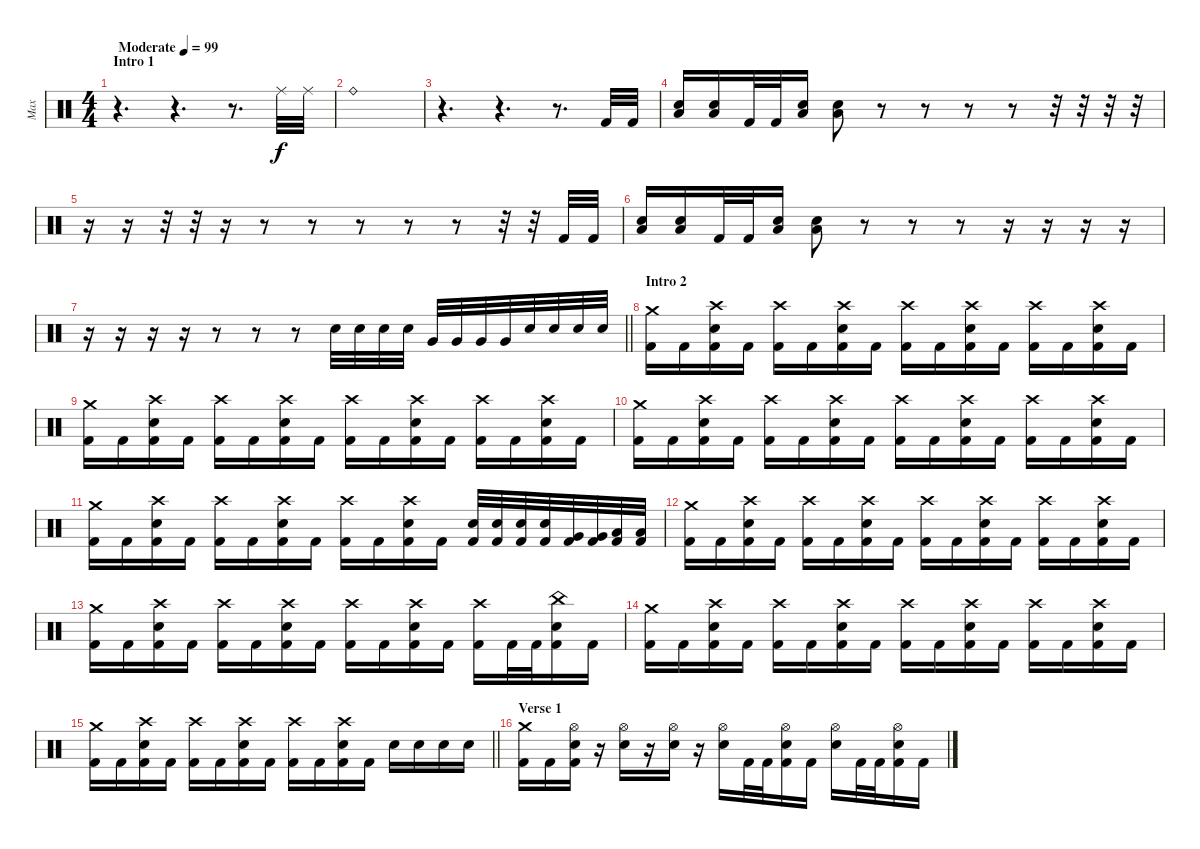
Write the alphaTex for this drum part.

\track ("Max" "Max") {instrument percussion}
\staff {score}
\articulation defaults
\ts (4 4)
\section ("" "Intro 1")
\tempo (99 "Moderate")
\clef neutral
\ks c
r.4{d dy f} r.4{d} r.8{d} "Ride (middle)".32 "Ride (middle)".32 |
"Ride (bell)".1 |
r.4{d} r.4{d} r.8{d} "Kick (hit) 2".32 "Kick (hit) 2".32 |
("Low Floor Tom (hit)" "Electric Snare (hit)").16 ("Low Floor Tom (hit)" "Electric Snare (hit)").16 "Kick (hit) 2".32 "Kick (hit) 2".32 ("Low Floor Tom (hit)" "Electric Snare (hit)").16 ("Low Floor Tom (hit)" "Electric Snare (hit)").8 r.8 r.8 r.8 r.8 r.32 r.32 r.32 r.32 |
r.16 r.16 r.32 r.32 r.16 r.8 r.8 r.8 r.8 r.8 r.32 r.32 "Kick (hit) 2".32 "Kick (hit) 2".32 |
("Low Floor Tom (hit)" "Electric Snare (hit)").16 ("Low Floor Tom (hit)" "Electric Snare (hit)").16 "Kick (hit) 2".32 "Kick (hit) 2".32 ("Low Floor Tom (hit)" "Electric Snare (hit)").16 ("Low Floor Tom (hit)" "Electric Snare (hit)").8 r.8 r.8 r.8 r.16 r.16 r.16 r.16 |
\barLineRight lightlight
r.16 r.16 r.16 r.16 r.8 r.8 r.8 "Electric Snare (hit)".32 "Electric Snare (hit)".32 "Electric Snare (hit)".32 "Electric Snare (hit)".32 "Very Low Tom (hit)".32 "Very Low Tom (hit)".32 "Very Low Tom (hit)".32 "Very Low Tom (hit)".32 "Electric Snare (hit)".32 "Electric Snare (hit)".32 "Electric Snare (hit)".32 "Electric Snare (hit)".32 |
\section ("" "Intro 2")
("Crash medium (hit)" "Kick (hit) 2").16 "Kick (hit) 2".16 ("Crash high (hit)" "Electric Snare (hit)" "Kick (hit) 2").16 "Kick (hit) 2".16 ("Crash high (hit)" "Kick (hit) 2").16 "Kick (hit) 2".16 ("Crash high (hit)" "Electric Snare (hit)" "Kick (hit) 2").16 "Kick (hit) 2".16 ("Crash high (hit)" "Kick (hit) 2").16 "Kick (hit) 2".16 ("Crash high (hit)" "Electric Snare (hit)" "Kick (hit) 2").16 "Kick (hit) 2".16 ("Crash high (hit)" "Kick (hit) 2").16 "Kick (hit) 2".16 ("Crash high (hit)" "Electric Snare (hit)" "Kick (hit) 2").16 "Kick (hit) 2".16 |
("Crash medium (hit)" "Kick (hit) 2").16 "Kick (hit) 2".16 ("Crash high (hit)" "Electric Snare (hit)" "Kick (hit) 2").16 "Kick (hit) 2".16 ("Crash high (hit)" "Kick (hit) 2").16 "Kick (hit) 2".16 ("Crash high (hit)" "Electric Snare (hit)" "Kick (hit) 2").16 "Kick (hit) 2".16 ("Crash high (hit)" "Kick (hit) 2").16 "Kick (hit) 2".16 ("Crash high (hit)" "Electric Snare (hit)" "Kick (hit) 2").16 "Kick (hit) 2".16 ("Crash high (hit)" "Kick (hit) 2").16 "Kick (hit) 2".16 ("Crash high (hit)" "Electric Snare (hit)" "Kick (hit) 2").16 "Kick (hit) 2".16 |
("Crash medium (hit)" "Kick (hit) 2").16 "Kick (hit) 2".16 ("Crash high (hit)" "Electric Snare (hit)" "Kick (hit) 2").16 "Kick (hit) 2".16 ("Crash high (hit)" "Kick (hit) 2").16 "Kick (hit) 2".16 ("Crash high (hit)" "Electric Snare (hit)" "Kick (hit) 2").16 "Kick (hit) 2".16 ("Crash high (hit)" "Kick (hit) 2").16 "Kick (hit) 2".16 ("Crash high (hit)" "Electric Snare (hit)" "Kick (hit) 2").16 "Kick (hit) 2".16 ("Crash high (hit)" "Kick (hit) 2").16 "Kick (hit) 2".16 ("Crash high (hit)" "Electric Snare (hit)" "Kick (hit) 2").16 "Kick (hit) 2".16 |
("Crash medium (hit)" "Kick (hit) 2").16 "Kick (hit) 2".16 ("Crash high (hit)" "Electric Snare (hit)" "Kick (hit) 2").16 "Kick (hit) 2".16 ("Crash high (hit)" "Kick (hit) 2").16 "Kick (hit) 2".16 ("Crash high (hit)" "Electric Snare (hit)" "Kick (hit) 2").16 "Kick (hit) 2".16 ("Crash high (hit)" "Kick (hit) 2").16 "Kick (hit) 2".16 ("Crash high (hit)" "Electric Snare (hit)" "Kick (hit) 2").16 "Kick (hit) 2".16 ("Electric Snare (hit)" "Kick (hit) 2").32 ("Electric Snare (hit)" "Kick (hit) 2").32 ("Electric Snare (hit)" "Kick (hit) 2").32 ("Electric Snare (hit)" "Kick (hit) 2").32 ("Very Low Tom (hit)" "Kick (hit) 2").32 ("Very Low Tom (hit)" "Kick (hit) 2").32 ("Low Floor Tom (hit)" "Kick (hit) 2").32 ("Low Floor Tom (hit)" "Kick (hit) 2").32 |
("Crash medium (hit)" "Kick (hit) 2").16 "Kick (hit) 2".16 ("Crash high (hit)" "Electric Snare (hit)" "Kick (hit) 2").16 "Kick (hit) 2".16 ("Crash high (hit)" "Kick (hit) 2").16 "Kick (hit) 2".16 ("Crash high (hit)" "Electric Snare (hit)" "Kick (hit) 2").16 "Kick (hit) 2".16 ("Crash high (hit)" "Kick (hit) 2").16 "Kick (hit) 2".16 ("Crash high (hit)" "Electric Snare (hit)" "Kick (hit) 2").16 "Kick (hit) 2".16 ("Crash high (hit)" "Kick (hit) 2").16 "Kick (hit) 2".16 ("Crash high (hit)" "Electric Snare (hit)" "Kick (hit) 2").16 "Kick (hit) 2".16 |
("Crash medium (hit)" "Kick (hit) 2").16 "Kick (hit) 2".16 ("Crash high (hit)" "Electric Snare (hit)" "Kick (hit) 2").16 "Kick (hit) 2".16 ("Crash high (hit)" "Kick (hit) 2").16 "Kick (hit) 2".16 ("Crash high (hit)" "Electric Snare (hit)" "Kick (hit) 2").16 "Kick (hit) 2".16 ("Crash high (hit)" "Kick (hit) 2").16 "Kick (hit) 2".16 ("Crash high (hit)" "Electric Snare (hit)" "Kick (hit) 2").16 "Kick (hit) 2".16 ("Crash high (hit)" "Kick (hit) 2").16 "Kick (hit) 2".32 "Kick (hit) 2".32 ("China (hit)" "Electric Snare (hit)" "Kick (hit) 2").16 "Kick (hit) 2".16 |
("Crash medium (hit)" "Kick (hit) 2").16 "Kick (hit) 2".16 ("Crash high (hit)" "Electric Snare (hit)" "Kick (hit) 2").16 "Kick (hit) 2".16 ("Crash high (hit)" "Kick (hit) 2").16 "Kick (hit) 2".16 ("Crash high (hit)" "Electric Snare (hit)" "Kick (hit) 2").16 "Kick (hit) 2".16 ("Crash high (hit)" "Kick (hit) 2").16 "Kick (hit) 2".16 ("Crash high (hit)" "Electric Snare (hit)" "Kick (hit) 2").16 "Kick (hit) 2".16 ("Crash high (hit)" "Kick (hit) 2").16 "Kick (hit) 2".16 ("Crash high (hit)" "Electric Snare (hit)" "Kick (hit) 2").16 "Kick (hit) 2".16 |
\barLineRight lightlight
("Crash medium (hit)" "Kick (hit) 2").16 "Kick (hit) 2".16 ("Crash high (hit)" "Electric Snare (hit)" "Kick (hit) 2").16 "Kick (hit) 2".16 ("Crash high (hit)" "Kick (hit) 2").16 "Kick (hit) 2".16 ("Crash high (hit)" "Electric Snare (hit)" "Kick (hit) 2").16 "Kick (hit) 2".16 ("Crash high (hit)" "Kick (hit) 2").16 "Kick (hit) 2".16 ("Crash high (hit)" "Electric Snare (hit)" "Kick (hit) 2").16 "Kick (hit) 2".16 "Electric Snare (hit)".16 "Electric Snare (hit)".16 "Electric Snare (hit)".16 "Electric Snare (hit)".16 |
\section ("" "Verse 1")
("Crash medium (hit)" "Kick (hit) 2").16 "Kick (hit) 2".16 ("Hi-Hat (open)" "Electric Snare (hit)" "Kick (hit) 2").16 r.16 ("Hi-Hat (open)" "Electric Snare (hit)").16 r.16 ("Hi-Hat (open)" "Electric Snare (hit)").16 r.16 ("Hi-Hat (open)" "Electric Snare (hit)").16 "Kick (hit) 2".32 "Kick (hit) 2".32 ("Hi-Hat (open)" "Electric Snare (hit)" "Kick (hit) 2").16 "Kick (hit) 2".16 ("Hi-Hat (open)" "Electric Snare (hit)").16 "Kick (hit) 2".32 "Kick (hit) 2".32 ("Hi-Hat (open)" "Electric Snare (hit)" "Kick (hit) 2").16 "Kick (hit) 2".16
